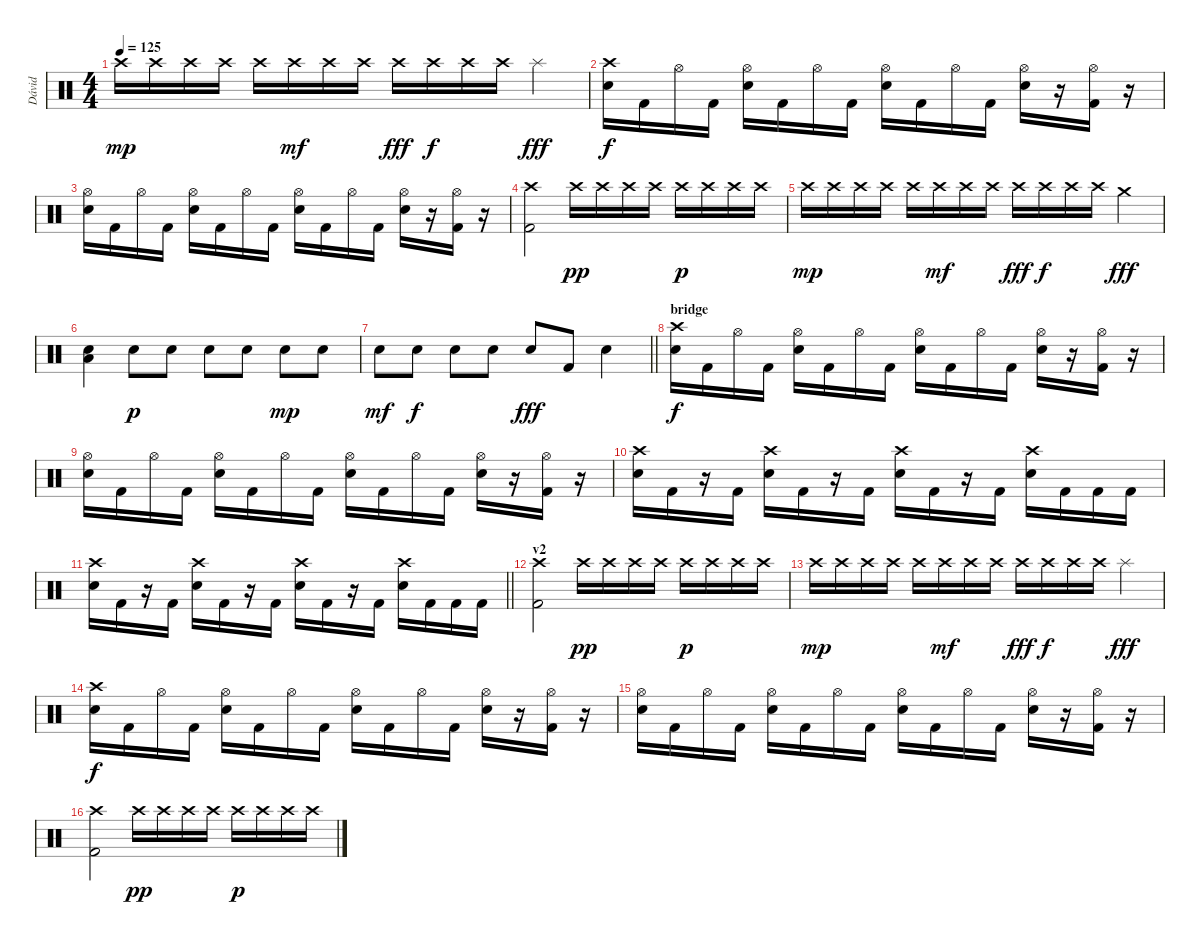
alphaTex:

\track ("Dávid" "Dávid") {instrument percussion}
\staff {score}
\articulation defaults
\ts (4 4)
\tempo 125
\clef neutral
\ks c "Crash high (hit)".16{dy mp} "Crash high (hit)".16 "Crash high (hit)".16 "Crash high (hit)".16 "Crash high (hit)".16 "Crash high (hit)".16{dy mf} "Crash high (hit)".16 "Crash high (hit)".16 "Crash high (hit)".16{dy fff} "Crash high (hit)".16{dy f} "Crash high (hit)".16 "Crash high (hit)".16 "Splash (hit)".4{dy fff}
|
("Crash high (hit)" "Electric Snare (hit)").16{dy f} "Kick (hit) 2".16 "Hi-Hat (open)".16 "Kick (hit) 2".16 ("Hi-Hat (open)" "Electric Snare (hit)").16 "Kick (hit) 2".16 "Hi-Hat (open)".16 "Kick (hit) 2".16 ("Hi-Hat (open)" "Electric Snare (hit)").16 "Kick (hit) 2".16 "Hi-Hat (open)".16 "Kick (hit) 2".16 ("Hi-Hat (open)" "Electric Snare (hit)").16 r.16 ("Hi-Hat (open)" "Kick (hit) 2").16 r.16 |
("Hi-Hat (open)" "Electric Snare (hit)").16 "Kick (hit) 2".16 "Hi-Hat (open)".16 "Kick (hit) 2".16 ("Hi-Hat (open)" "Electric Snare (hit)").16 "Kick (hit) 2".16 "Hi-Hat (open)".16 "Kick (hit) 2".16 ("Hi-Hat (open)" "Electric Snare (hit)").16 "Kick (hit) 2".16 "Hi-Hat (open)".16 "Kick (hit) 2".16 ("Hi-Hat (open)" "Electric Snare (hit)").16 r.16 ("Hi-Hat (open)" "Kick (hit) 2").16 r.16 |
("Crash high (hit)" "Kick (hit) 2").2 "Crash high (hit)".16{dy pp} "Crash high (hit)".16 "Crash high (hit)".16 "Crash high (hit)".16 "Crash high (hit)".16{dy p} "Crash high (hit)".16 "Crash high (hit)".16 "Crash high (hit)".16 |
"Crash high (hit)".16{dy mp} "Crash high (hit)".16 "Crash high (hit)".16 "Crash high (hit)".16 "Crash high (hit)".16 "Crash high (hit)".16{dy mf} "Crash high (hit)".16 "Crash high (hit)".16 "Crash high (hit)".16{dy fff} "Crash high (hit)".16{dy f} "Crash high (hit)".16 "Crash high (hit)".16 "Crash medium (hit)".4{dy fff} |
("Electric Snare (hit)" "Low Floor Tom (hit)").4 "Electric Snare (hit)".8{dy p} "Electric Snare (hit)".8 "Electric Snare (hit)".8 "Electric Snare (hit)".8 "Electric Snare (hit)".8{dy mp} "Electric Snare (hit)".8 |
\barLineRight lightlight "Electric Snare (hit)".8{dy mf} "Electric Snare (hit)".8{dy f} "Electric Snare (hit)".8 "Electric Snare (hit)".8 "Electric Snare (hit)".8{dy fff} "Kick (hit) 2".8 "Electric Snare (hit)".4
|
\section ("" "bridge")
("Crash high (hit)" "Electric Snare (hit)").16{dy f} "Kick (hit) 2".16 "Hi-Hat (open)".16 "Kick (hit) 2".16 ("Hi-Hat (open)" "Electric Snare (hit)").16 "Kick (hit) 2".16 "Hi-Hat (open)".16 "Kick (hit) 2".16 ("Hi-Hat (open)" "Electric Snare (hit)").16 "Kick (hit) 2".16 "Hi-Hat (open)".16 "Kick (hit) 2".16 ("Hi-Hat (open)" "Electric Snare (hit)").16 r.16 ("Hi-Hat (open)" "Kick (hit) 2").16 r.16 |
("Hi-Hat (open)" "Electric Snare (hit)").16 "Kick (hit) 2".16 "Hi-Hat (open)".16 "Kick (hit) 2".16 ("Hi-Hat (open)" "Electric Snare (hit)").16 "Kick (hit) 2".16 "Hi-Hat (open)".16 "Kick (hit) 2".16 ("Hi-Hat (open)" "Electric Snare (hit)").16 "Kick (hit) 2".16 "Hi-Hat (open)".16 "Kick (hit) 2".16 ("Hi-Hat (open)" "Electric Snare (hit)").16 r.16 ("Hi-Hat (open)" "Kick (hit) 2").16 r.16 |
("Crash high (hit)" "Electric Snare (hit)").16 "Kick (hit) 2".16 r.16 "Kick (hit) 2".16 ("Crash high (hit)" "Electric Snare (hit)").16 "Kick (hit) 2".16 r.16 "Kick (hit) 2".16 ("Crash high (hit)" "Electric Snare (hit)").16 "Kick (hit) 2".16 r.16 "Kick (hit) 2".16 ("Crash high (hit)" "Electric Snare (hit)").16 "Kick (hit) 2".16 "Kick (hit) 2".16 "Kick (hit) 2".16 |
\barLineRight lightlight
("Crash high (hit)" "Electric Snare (hit)").16 "Kick (hit) 2".16 r.16 "Kick (hit) 2".16 ("Crash high (hit)" "Electric Snare (hit)").16 "Kick (hit) 2".16 r.16 "Kick (hit) 2".16 ("Crash high (hit)" "Electric Snare (hit)").16 "Kick (hit) 2".16 r.16 "Kick (hit) 2".16 ("Crash high (hit)" "Electric Snare (hit)").16 "Kick (hit) 2".16 "Kick (hit) 2".16 "Kick (hit) 2".16 |
\section ("" "v2")
("Crash high (hit)" "Kick (hit) 2").2 "Crash high (hit)".16{dy pp} "Crash high (hit)".16 "Crash high (hit)".16 "Crash high (hit)".16 "Crash high (hit)".16{dy p} "Crash high (hit)".16 "Crash high (hit)".16 "Crash high (hit)".16 |
"Crash high (hit)".16{dy mp} "Crash high (hit)".16 "Crash high (hit)".16 "Crash high (hit)".16 "Crash high (hit)".16 "Crash high (hit)".16{dy mf} "Crash high (hit)".16 "Crash high (hit)".16 "Crash high (hit)".16{dy fff} "Crash high (hit)".16{dy f} "Crash high (hit)".16 "Crash high (hit)".16 "Splash (hit)".4{dy fff} |
("Crash high (hit)" "Electric Snare (hit)").16{dy f} "Kick (hit) 2".16 "Hi-Hat (open)".16 "Kick (hit) 2".16 ("Hi-Hat (open)" "Electric Snare (hit)").16 "Kick (hit) 2".16 "Hi-Hat (open)".16 "Kick (hit) 2".16 ("Hi-Hat (open)" "Electric Snare (hit)").16 "Kick (hit) 2".16 "Hi-Hat (open)".16 "Kick (hit) 2".16 ("Hi-Hat (open)" "Electric Snare (hit)").16 r.16 ("Hi-Hat (open)" "Kick (hit) 2").16 r.16 |
("Hi-Hat (open)" "Electric Snare (hit)").16 "Kick (hit) 2".16 "Hi-Hat (open)".16 "Kick (hit) 2".16 ("Hi-Hat (open)" "Electric Snare (hit)").16 "Kick (hit) 2".16 "Hi-Hat (open)".16 "Kick (hit) 2".16 ("Hi-Hat (open)" "Electric Snare (hit)").16 "Kick (hit) 2".16 "Hi-Hat (open)".16 "Kick (hit) 2".16 ("Hi-Hat (open)" "Electric Snare (hit)").16 r.16 ("Hi-Hat (open)" "Kick (hit) 2").16 r.16 |
("Crash high (hit)" "Kick (hit) 2").2 "Crash high (hit)".16{dy pp} "Crash high (hit)".16 "Crash high (hit)".16 "Crash high (hit)".16 "Crash high (hit)".16{dy p} "Crash high (hit)".16 "Crash high (hit)".16 "Crash high (hit)".16
